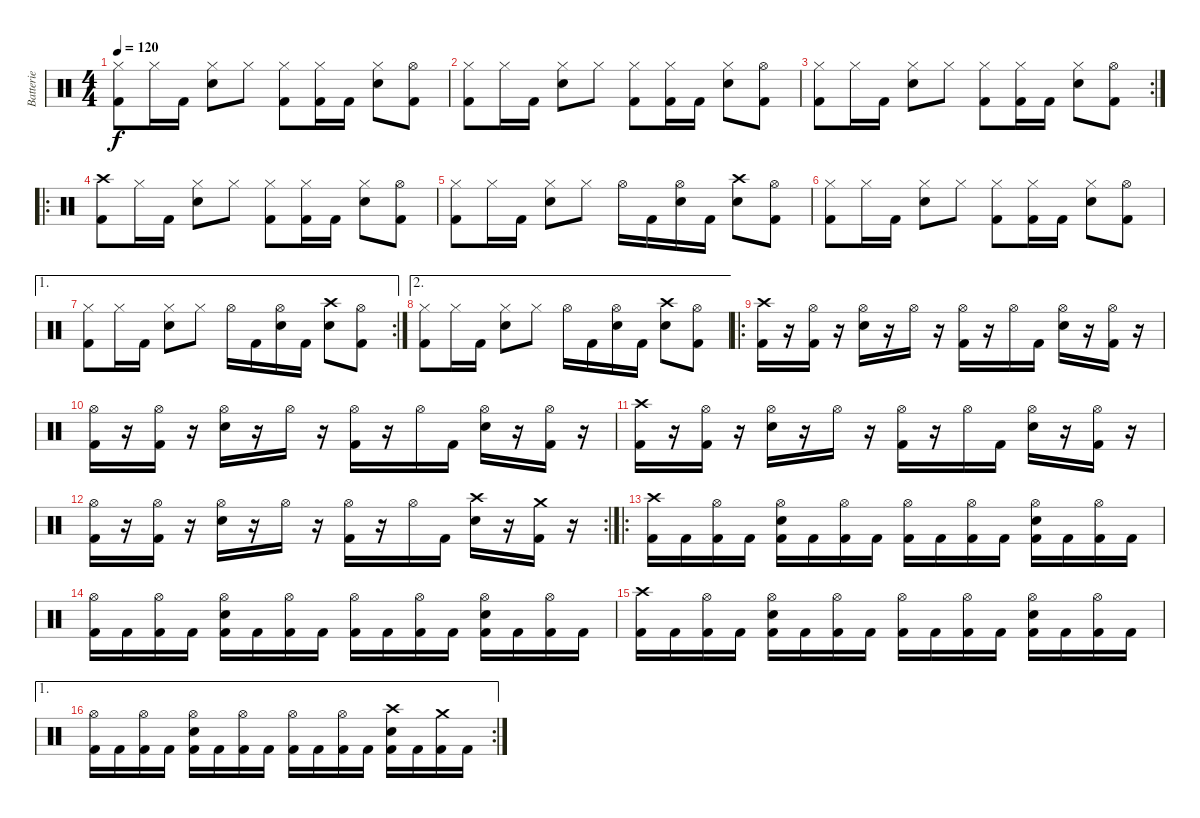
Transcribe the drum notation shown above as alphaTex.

\track ("Batterie" "Batterie") {instrument percussion}
\staff {score}
\articulation defaults
\ts (4 4)
\tempo 120
\clef neutral
\ks c
("Hi-Hat (closed)" "Kick (hit) 2").8{dy f} "Hi-Hat (closed)".16 "Kick (hit) 2".16 ("Hi-Hat (closed)" "Snare (hit) 2").8 "Hi-Hat (closed)".8 ("Hi-Hat (closed)" "Kick (hit) 2").8 ("Hi-Hat (closed)" "Kick (hit) 2").16 "Kick (hit) 2".16 ("Hi-Hat (closed)" "Snare (hit) 2").8 ("Hi-Hat (open)" "Kick (hit) 2").8 |
("Hi-Hat (closed)" "Kick (hit) 2").8 "Hi-Hat (closed)".16 "Kick (hit) 2".16 ("Hi-Hat (closed)" "Snare (hit) 2").8 "Hi-Hat (closed)".8 ("Hi-Hat (closed)" "Kick (hit) 2").8 ("Hi-Hat (closed)" "Kick (hit) 2").16 "Kick (hit) 2".16 ("Hi-Hat (closed)" "Snare (hit) 2").8 ("Hi-Hat (open)" "Kick (hit) 2").8 |
\rc 2
("Hi-Hat (closed)" "Kick (hit) 2").8 "Hi-Hat (closed)".16 "Kick (hit) 2".16 ("Hi-Hat (closed)" "Snare (hit) 2").8 "Hi-Hat (closed)".8 ("Hi-Hat (closed)" "Kick (hit) 2").8 ("Hi-Hat (closed)" "Kick (hit) 2").16 "Kick (hit) 2".16 ("Hi-Hat (closed)" "Snare (hit) 2").8 ("Hi-Hat (open)" "Kick (hit) 2").8 |
\ro
("Crash high (hit)" "Kick (hit) 2").8 "Hi-Hat (closed)".16 "Kick (hit) 2".16 ("Hi-Hat (closed)" "Snare (hit) 2").8 "Hi-Hat (closed)".8 ("Hi-Hat (closed)" "Kick (hit) 2").8 ("Hi-Hat (closed)" "Kick (hit) 2").16 "Kick (hit) 2".16 ("Hi-Hat (closed)" "Snare (hit) 2").8 ("Hi-Hat (open)" "Kick (hit) 2").8 |
("Hi-Hat (closed)" "Kick (hit) 2").8 "Hi-Hat (closed)".16 "Kick (hit) 2".16 ("Hi-Hat (closed)" "Snare (hit) 2").8 "Hi-Hat (closed)".8 "Hi-Hat (open)".16 "Kick (hit) 2".16 ("Hi-Hat (open)" "Snare (hit) 2").16 "Kick (hit) 2".16 ("Crash high (hit)" "Snare (hit) 2").8 ("Hi-Hat (open)" "Kick (hit) 2").8 |
("Hi-Hat (closed)" "Kick (hit) 2").8 "Hi-Hat (closed)".16 "Kick (hit) 2".16 ("Hi-Hat (closed)" "Snare (hit) 2").8 "Hi-Hat (closed)".8 ("Hi-Hat (closed)" "Kick (hit) 2").8 ("Hi-Hat (closed)" "Kick (hit) 2").16 "Kick (hit) 2".16 ("Hi-Hat (closed)" "Snare (hit) 2").8 ("Hi-Hat (open)" "Kick (hit) 2").8 |
\ae 1
\rc 2
("Hi-Hat (closed)" "Kick (hit) 2").8 "Hi-Hat (closed)".16 "Kick (hit) 2".16 ("Hi-Hat (closed)" "Snare (hit) 2").8 "Hi-Hat (closed)".8 "Hi-Hat (open)".16 "Kick (hit) 2".16 ("Hi-Hat (open)" "Snare (hit) 2").16 "Kick (hit) 2".16 ("Crash high (hit)" "Snare (hit) 2").8 ("Hi-Hat (open)" "Kick (hit) 2").8 |
\ae 2
("Hi-Hat (closed)" "Kick (hit) 2").8 "Hi-Hat (closed)".16 "Kick (hit) 2".16 ("Hi-Hat (closed)" "Snare (hit) 2").8 "Hi-Hat (closed)".8 "Hi-Hat (open)".16 "Kick (hit) 2".16 ("Hi-Hat (open)" "Snare (hit) 2").16 "Kick (hit) 2".16 ("Crash high (hit)" "Snare (hit) 2").8 ("Hi-Hat (open)" "Kick (hit) 2").8 |
\ro
("Crash high (hit)" "Kick (hit) 2").16 r.16 ("Hi-Hat (open)" "Kick (hit) 2").16 r.16 ("Hi-Hat (open)" "Snare (hit) 2").16 r.16 "Hi-Hat (open)".16 r.16 ("Hi-Hat (open)" "Kick (hit) 2").16 r.16 "Hi-Hat (open)".16 "Kick (hit) 2".16 ("Hi-Hat (open)" "Snare (hit) 2").16 r.16 ("Hi-Hat (open)" "Kick (hit) 2").16 r.16 |
("Hi-Hat (open)" "Kick (hit) 2").16 r.16 ("Hi-Hat (open)" "Kick (hit) 2").16 r.16 ("Hi-Hat (open)" "Snare (hit) 2").16 r.16 "Hi-Hat (open)".16 r.16 ("Hi-Hat (open)" "Kick (hit) 2").16 r.16 "Hi-Hat (open)".16 "Kick (hit) 2".16 ("Hi-Hat (open)" "Snare (hit) 2").16 r.16 ("Hi-Hat (open)" "Kick (hit) 2").16 r.16 |
("Crash high (hit)" "Kick (hit) 2").16 r.16 ("Hi-Hat (open)" "Kick (hit) 2").16 r.16 ("Hi-Hat (open)" "Snare (hit) 2").16 r.16 "Hi-Hat (open)".16 r.16 ("Hi-Hat (open)" "Kick (hit) 2").16 r.16 "Hi-Hat (open)".16 "Kick (hit) 2".16 ("Hi-Hat (open)" "Snare (hit) 2").16 r.16 ("Hi-Hat (open)" "Kick (hit) 2").16 r.16 |
\rc 2
("Hi-Hat (open)" "Kick (hit) 2").16 r.16 ("Hi-Hat (open)" "Kick (hit) 2").16 r.16 ("Hi-Hat (open)" "Snare (hit) 2").16 r.16 "Hi-Hat (open)".16 r.16 ("Hi-Hat (open)" "Kick (hit) 2").16 r.16 "Hi-Hat (open)".16 "Kick (hit) 2".16 ("Crash high (hit)" "Snare (hit) 2").16 r.16 ("Crash medium (hit)" "Kick (hit) 2").16 r.16 |
\ro
("Crash high (hit)" "Kick (hit) 2").16 "Kick (hit) 2".16 ("Hi-Hat (open)" "Kick (hit) 2").16 "Kick (hit) 2".16 ("Hi-Hat (open)" "Snare (hit) 2" "Kick (hit) 2").16 "Kick (hit) 2".16 ("Hi-Hat (open)" "Kick (hit) 2").16 "Kick (hit) 2".16 ("Hi-Hat (open)" "Kick (hit) 2").16 "Kick (hit) 2".16 ("Hi-Hat (open)" "Kick (hit) 2").16 "Kick (hit) 2".16 ("Hi-Hat (open)" "Snare (hit) 2" "Kick (hit) 2").16 "Kick (hit) 2".16 ("Hi-Hat (open)" "Kick (hit) 2").16 "Kick (hit) 2".16 |
("Hi-Hat (open)" "Kick (hit) 2").16 "Kick (hit) 2".16 ("Hi-Hat (open)" "Kick (hit) 2").16 "Kick (hit) 2".16 ("Hi-Hat (open)" "Snare (hit) 2" "Kick (hit) 2").16 "Kick (hit) 2".16 ("Hi-Hat (open)" "Kick (hit) 2").16 "Kick (hit) 2".16 ("Hi-Hat (open)" "Kick (hit) 2").16 "Kick (hit) 2".16 ("Hi-Hat (open)" "Kick (hit) 2").16 "Kick (hit) 2".16 ("Hi-Hat (open)" "Snare (hit) 2" "Kick (hit) 2").16 "Kick (hit) 2".16 ("Hi-Hat (open)" "Kick (hit) 2").16 "Kick (hit) 2".16 |
("Crash high (hit)" "Kick (hit) 2").16 "Kick (hit) 2".16 ("Hi-Hat (open)" "Kick (hit) 2").16 "Kick (hit) 2".16 ("Hi-Hat (open)" "Snare (hit) 2" "Kick (hit) 2").16 "Kick (hit) 2".16 ("Hi-Hat (open)" "Kick (hit) 2").16 "Kick (hit) 2".16 ("Hi-Hat (open)" "Kick (hit) 2").16 "Kick (hit) 2".16 ("Hi-Hat (open)" "Kick (hit) 2").16 "Kick (hit) 2".16 ("Hi-Hat (open)" "Snare (hit) 2" "Kick (hit) 2").16 "Kick (hit) 2".16 ("Hi-Hat (open)" "Kick (hit) 2").16 "Kick (hit) 2".16 |
\ae 1
\rc 2
("Hi-Hat (open)" "Kick (hit) 2").16 "Kick (hit) 2".16 ("Hi-Hat (open)" "Kick (hit) 2").16 "Kick (hit) 2".16 ("Hi-Hat (open)" "Snare (hit) 2" "Kick (hit) 2").16 "Kick (hit) 2".16 ("Hi-Hat (open)" "Kick (hit) 2").16 "Kick (hit) 2".16 ("Hi-Hat (open)" "Kick (hit) 2").16 "Kick (hit) 2".16 ("Hi-Hat (open)" "Kick (hit) 2").16 "Kick (hit) 2".16 ("Crash high (hit)" "Snare (hit) 2" "Kick (hit) 2").16 "Kick (hit) 2".16 ("Crash medium (hit)" "Kick (hit) 2").16 "Kick (hit) 2".16
